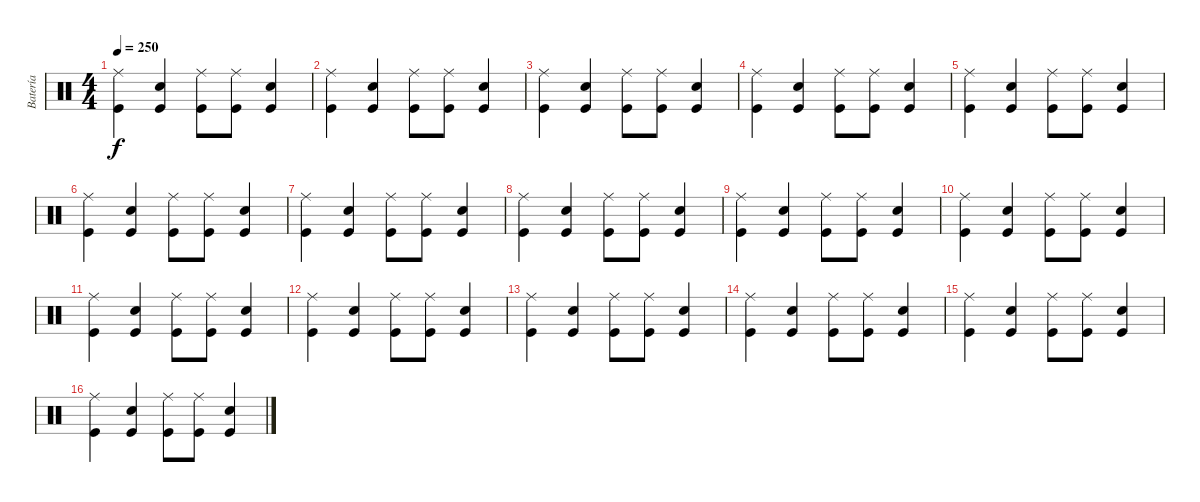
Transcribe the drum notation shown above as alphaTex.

\track ("Batería" "Batería") {instrument percussion}
\staff {score}
\articulation defaults
\ts (4 4)
\tempo 250
\clef neutral
\ks c
("Ride (middle)" "Kick (hit)").4{dy f} ("Electric Snare (hit)" "Kick (hit)").4 ("Ride (middle)" "Kick (hit)").8 ("Ride (middle)" "Kick (hit)").8 ("Electric Snare (hit)" "Kick (hit)").4 |
("Ride (middle)" "Kick (hit)").4 ("Electric Snare (hit)" "Kick (hit)").4 ("Ride (middle)" "Kick (hit)").8 ("Ride (middle)" "Kick (hit)").8 ("Electric Snare (hit)" "Kick (hit)").4 |
("Ride (middle)" "Kick (hit)").4 ("Electric Snare (hit)" "Kick (hit)").4 ("Ride (middle)" "Kick (hit)").8 ("Ride (middle)" "Kick (hit)").8 ("Electric Snare (hit)" "Kick (hit)").4 |
("Ride (middle)" "Kick (hit)").4 ("Electric Snare (hit)" "Kick (hit)").4 ("Ride (middle)" "Kick (hit)").8 ("Ride (middle)" "Kick (hit)").8 ("Electric Snare (hit)" "Kick (hit)").4 |
("Ride (middle)" "Kick (hit)").4 ("Electric Snare (hit)" "Kick (hit)").4 ("Ride (middle)" "Kick (hit)").8 ("Ride (middle)" "Kick (hit)").8 ("Electric Snare (hit)" "Kick (hit)").4 |
("Ride (middle)" "Kick (hit)").4 ("Electric Snare (hit)" "Kick (hit)").4 ("Ride (middle)" "Kick (hit)").8 ("Ride (middle)" "Kick (hit)").8 ("Electric Snare (hit)" "Kick (hit)").4 |
("Ride (middle)" "Kick (hit)").4 ("Electric Snare (hit)" "Kick (hit)").4 ("Ride (middle)" "Kick (hit)").8 ("Ride (middle)" "Kick (hit)").8 ("Electric Snare (hit)" "Kick (hit)").4 |
("Ride (middle)" "Kick (hit)").4 ("Electric Snare (hit)" "Kick (hit)").4 ("Ride (middle)" "Kick (hit)").8 ("Ride (middle)" "Kick (hit)").8 ("Electric Snare (hit)" "Kick (hit)").4 |
("Ride (middle)" "Kick (hit)").4 ("Electric Snare (hit)" "Kick (hit)").4 ("Ride (middle)" "Kick (hit)").8 ("Ride (middle)" "Kick (hit)").8 ("Electric Snare (hit)" "Kick (hit)").4 |
("Ride (middle)" "Kick (hit)").4 ("Electric Snare (hit)" "Kick (hit)").4 ("Ride (middle)" "Kick (hit)").8 ("Ride (middle)" "Kick (hit)").8 ("Electric Snare (hit)" "Kick (hit)").4 |
("Ride (middle)" "Kick (hit)").4 ("Electric Snare (hit)" "Kick (hit)").4 ("Ride (middle)" "Kick (hit)").8 ("Ride (middle)" "Kick (hit)").8 ("Electric Snare (hit)" "Kick (hit)").4 |
("Ride (middle)" "Kick (hit)").4 ("Electric Snare (hit)" "Kick (hit)").4 ("Ride (middle)" "Kick (hit)").8 ("Ride (middle)" "Kick (hit)").8 ("Electric Snare (hit)" "Kick (hit)").4 |
("Ride (middle)" "Kick (hit)").4 ("Electric Snare (hit)" "Kick (hit)").4 ("Ride (middle)" "Kick (hit)").8 ("Ride (middle)" "Kick (hit)").8 ("Electric Snare (hit)" "Kick (hit)").4 |
("Ride (middle)" "Kick (hit)").4 ("Electric Snare (hit)" "Kick (hit)").4 ("Ride (middle)" "Kick (hit)").8 ("Ride (middle)" "Kick (hit)").8 ("Electric Snare (hit)" "Kick (hit)").4 |
("Ride (middle)" "Kick (hit)").4 ("Electric Snare (hit)" "Kick (hit)").4 ("Ride (middle)" "Kick (hit)").8 ("Ride (middle)" "Kick (hit)").8 ("Electric Snare (hit)" "Kick (hit)").4 |
("Ride (middle)" "Kick (hit)").4 ("Electric Snare (hit)" "Kick (hit)").4 ("Ride (middle)" "Kick (hit)").8 ("Ride (middle)" "Kick (hit)").8 ("Electric Snare (hit)" "Kick (hit)").4
